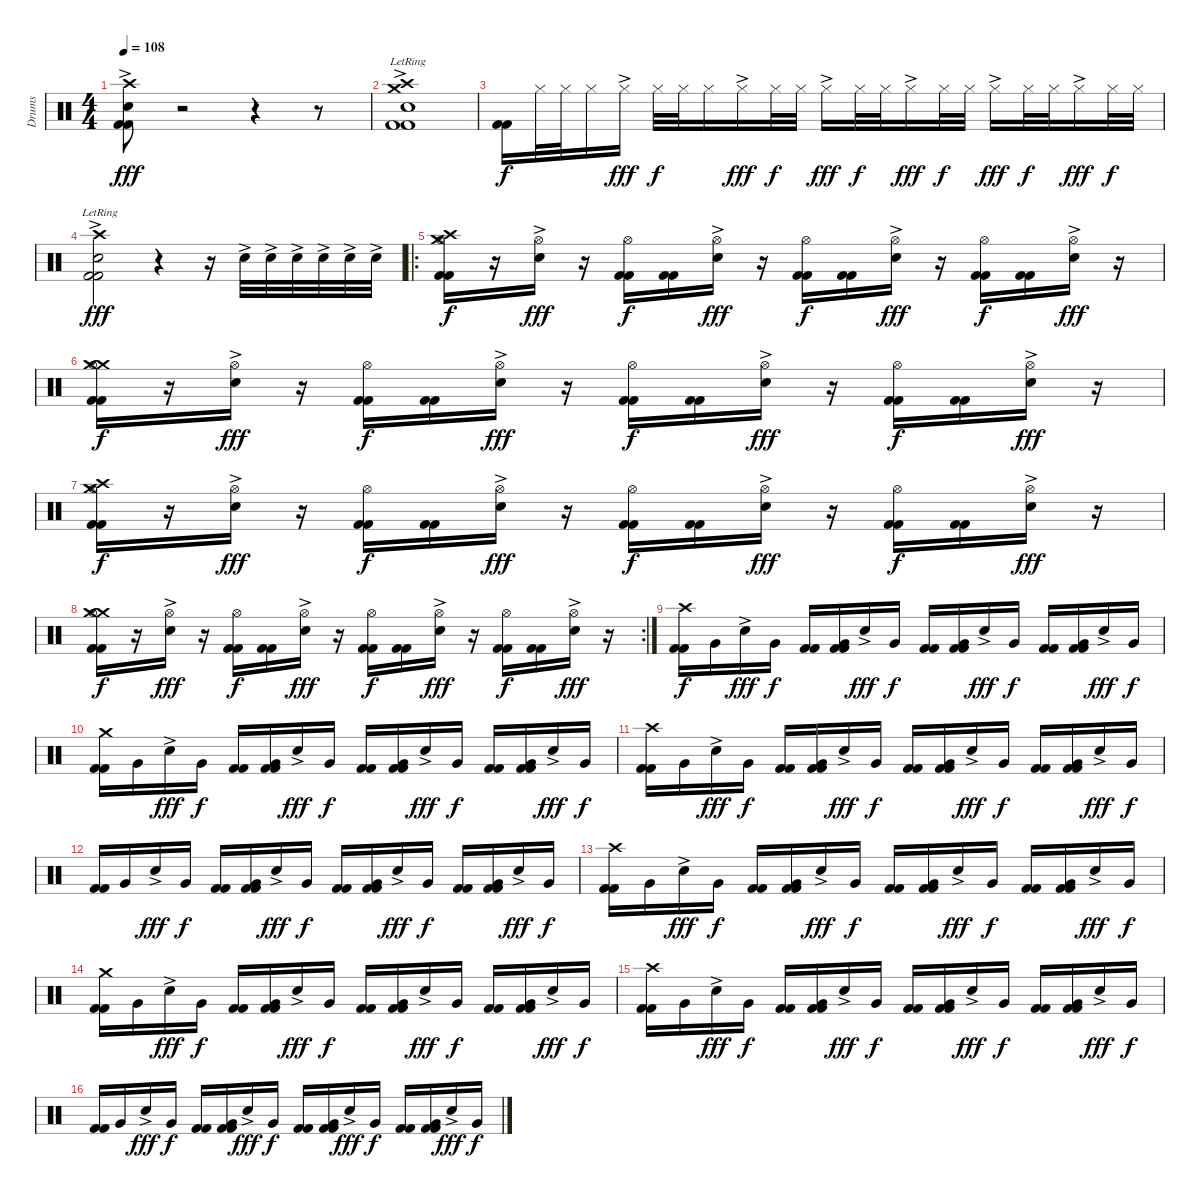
\track ("Drums" "Drums") {instrument percussion}
\staff {score}
\articulation defaults
\ts (4 4)
\tempo 108
\clef neutral
\ks c
("Crash high (hit)"{ac} "Electric Snare (hit)" "Kick (hit) 2" "Kick (hit) 2").8{dy fff} r.2 r.4 r.8 |
("Crash high (hit)"{ac lr} "Crash medium (hit)"{lr} "Electric Snare (hit)"{lr} "Kick (hit) 2"{lr} "Kick (hit) 2"{lr}).1 |
("Kick (hit) 2" "Kick (hit) 2").16{dy f} "Hi-Hat (closed)".32 "Hi-Hat (closed)".32 "Hi-Hat (closed)".16 "Hi-Hat (closed)"{ac}.16{dy fff} "Hi-Hat (closed)".32{dy f} "Hi-Hat (closed)".32 "Hi-Hat (closed)".16 "Hi-Hat (closed)"{ac}.16{dy fff} "Hi-Hat (closed)".32{dy f} "Hi-Hat (closed)".32 "Hi-Hat (closed)"{ac}.16{dy fff} "Hi-Hat (closed)".32{dy f} "Hi-Hat (closed)".32 "Hi-Hat (closed)"{ac}.16{dy fff} "Hi-Hat (closed)".32{dy f} "Hi-Hat (closed)".32 "Hi-Hat (closed)"{ac}.16{dy fff} "Hi-Hat (closed)".32{dy f} "Hi-Hat (closed)".32 "Hi-Hat (closed)"{ac}.16{dy fff} "Hi-Hat (closed)".32{dy f} "Hi-Hat (closed)".32 |
("Crash high (hit)"{ac lr} "Electric Snare (hit)"{lr} "Kick (hit) 2"{lr} "Kick (hit) 2"{lr}).2{dy fff} r.4 r.16 "Electric Snare (hit)"{ac}.32 "Electric Snare (hit)"{ac}.32 "Electric Snare (hit)"{ac}.32 "Electric Snare (hit)"{ac}.32 "Electric Snare (hit)"{ac}.32 "Electric Snare (hit)"{ac}.32 |
\ro
("Crash high (hit)" "Crash medium (hit)" "Hi-Hat (open)" "Kick (hit) 2" "Kick (hit) 2").16{dy f} r.16 ("Hi-Hat (open)" "Electric Snare (hit)"{ac}).16{dy fff} r.16 ("Hi-Hat (open)" "Kick (hit) 2" "Kick (hit) 2").16{dy f} ("Kick (hit) 2" "Kick (hit) 2").16 ("Hi-Hat (open)" "Electric Snare (hit)"{ac}).16{dy fff} r.16 ("Hi-Hat (open)" "Kick (hit) 2" "Kick (hit) 2").16{dy f} ("Kick (hit) 2" "Kick (hit) 2").16 ("Hi-Hat (open)" "Electric Snare (hit)"{ac}).16{dy fff} r.16 ("Hi-Hat (open)" "Kick (hit) 2" "Kick (hit) 2").16{dy f} ("Kick (hit) 2" "Kick (hit) 2").16 ("Hi-Hat (open)" "Electric Snare (hit)"{ac}).16{dy fff} r.16 |
("Crash medium (hit)" "Crash medium (hit)" "Hi-Hat (open)" "Kick (hit) 2" "Kick (hit) 2").16{dy f} r.16 ("Hi-Hat (open)" "Electric Snare (hit)"{ac}).16{dy fff} r.16 ("Hi-Hat (open)" "Kick (hit) 2" "Kick (hit) 2").16{dy f} ("Kick (hit) 2" "Kick (hit) 2").16 ("Hi-Hat (open)" "Electric Snare (hit)"{ac}).16{dy fff} r.16 ("Hi-Hat (open)" "Kick (hit) 2" "Kick (hit) 2").16{dy f} ("Kick (hit) 2" "Kick (hit) 2").16 ("Hi-Hat (open)" "Electric Snare (hit)"{ac}).16{dy fff} r.16 ("Hi-Hat (open)" "Kick (hit) 2" "Kick (hit) 2").16{dy f} ("Kick (hit) 2" "Kick (hit) 2").16 ("Hi-Hat (open)" "Electric Snare (hit)"{ac}).16{dy fff} r.16 |
("Crash high (hit)" "Crash medium (hit)" "Hi-Hat (open)" "Kick (hit) 2" "Kick (hit) 2").16{dy f} r.16 ("Hi-Hat (open)" "Electric Snare (hit)"{ac}).16{dy fff} r.16 ("Hi-Hat (open)" "Kick (hit) 2" "Kick (hit) 2").16{dy f} ("Kick (hit) 2" "Kick (hit) 2").16 ("Hi-Hat (open)" "Electric Snare (hit)"{ac}).16{dy fff} r.16 ("Hi-Hat (open)" "Kick (hit) 2" "Kick (hit) 2").16{dy f} ("Kick (hit) 2" "Kick (hit) 2").16 ("Hi-Hat (open)" "Electric Snare (hit)"{ac}).16{dy fff} r.16 ("Hi-Hat (open)" "Kick (hit) 2" "Kick (hit) 2").16{dy f} ("Kick (hit) 2" "Kick (hit) 2").16 ("Hi-Hat (open)" "Electric Snare (hit)"{ac}).16{dy fff} r.16 |
\rc 2
("Crash medium (hit)" "Crash medium (hit)" "Hi-Hat (open)" "Kick (hit) 2" "Kick (hit) 2").16{dy f} r.16 ("Hi-Hat (open)" "Electric Snare (hit)"{ac}).16{dy fff} r.16 ("Hi-Hat (open)" "Kick (hit) 2" "Kick (hit) 2").16{dy f} ("Kick (hit) 2" "Kick (hit) 2").16 ("Hi-Hat (open)" "Electric Snare (hit)"{ac}).16{dy fff} r.16 ("Hi-Hat (open)" "Kick (hit) 2" "Kick (hit) 2").16{dy f} ("Kick (hit) 2" "Kick (hit) 2").16 ("Hi-Hat (open)" "Electric Snare (hit)"{ac}).16{dy fff} r.16 ("Hi-Hat (open)" "Kick (hit) 2" "Kick (hit) 2").16{dy f} ("Kick (hit) 2" "Kick (hit) 2").16 ("Hi-Hat (open)" "Electric Snare (hit)"{ac}).16{dy fff} r.16 |
("Crash high (hit)" "Kick (hit) 2" "Kick (hit) 2").16{dy f} "Very Low Tom (hit)".16 "Electric Snare (hit)"{ac}.16{dy fff} "Very Low Tom (hit)".16{dy f} ("Kick (hit) 2" "Kick (hit) 2").16 ("Very Low Tom (hit)" "Kick (hit) 2" "Kick (hit) 2").16 "Electric Snare (hit)"{ac}.16{dy fff} "Very Low Tom (hit)".16{dy f} ("Kick (hit) 2" "Kick (hit) 2").16 ("Very Low Tom (hit)" "Kick (hit) 2" "Kick (hit) 2").16 "Electric Snare (hit)"{ac}.16{dy fff} "Very Low Tom (hit)".16{dy f} ("Kick (hit) 2" "Kick (hit) 2").16 ("Very Low Tom (hit)" "Kick (hit) 2" "Kick (hit) 2").16 "Electric Snare (hit)"{ac}.16{dy fff} "Very Low Tom (hit)".16{dy f} |
("Crash medium (hit)" "Kick (hit) 2" "Kick (hit) 2").16 "Very Low Tom (hit)".16 "Electric Snare (hit)"{ac}.16{dy fff} "Very Low Tom (hit)".16{dy f} ("Kick (hit) 2" "Kick (hit) 2").16 ("Very Low Tom (hit)" "Kick (hit) 2" "Kick (hit) 2").16 "Electric Snare (hit)"{ac}.16{dy fff} "Very Low Tom (hit)".16{dy f} ("Kick (hit) 2" "Kick (hit) 2").16 ("Very Low Tom (hit)" "Kick (hit) 2" "Kick (hit) 2").16 "Electric Snare (hit)"{ac}.16{dy fff} "Very Low Tom (hit)".16{dy f} ("Kick (hit) 2" "Kick (hit) 2").16 ("Very Low Tom (hit)" "Kick (hit) 2" "Kick (hit) 2").16 "Electric Snare (hit)"{ac}.16{dy fff} "Very Low Tom (hit)".16{dy f} |
("Crash high (hit)" "Kick (hit) 2" "Kick (hit) 2").16 "Very Low Tom (hit)".16 "Electric Snare (hit)"{ac}.16{dy fff} "Very Low Tom (hit)".16{dy f} ("Kick (hit) 2" "Kick (hit) 2").16 ("Very Low Tom (hit)" "Kick (hit) 2" "Kick (hit) 2").16 "Electric Snare (hit)"{ac}.16{dy fff} "Very Low Tom (hit)".16{dy f} ("Kick (hit) 2" "Kick (hit) 2").16 ("Very Low Tom (hit)" "Kick (hit) 2" "Kick (hit) 2").16 "Electric Snare (hit)"{ac}.16{dy fff} "Very Low Tom (hit)".16{dy f} ("Kick (hit) 2" "Kick (hit) 2").16 ("Very Low Tom (hit)" "Kick (hit) 2" "Kick (hit) 2").16 "Electric Snare (hit)"{ac}.16{dy fff} "Very Low Tom (hit)".16{dy f} |
("Kick (hit) 2" "Kick (hit) 2").16 "Very Low Tom (hit)".16 "Electric Snare (hit)"{ac}.16{dy fff} "Very Low Tom (hit)".16{dy f} ("Kick (hit) 2" "Kick (hit) 2").16 ("Very Low Tom (hit)" "Kick (hit) 2" "Kick (hit) 2").16 "Electric Snare (hit)"{ac}.16{dy fff} "Very Low Tom (hit)".16{dy f} ("Kick (hit) 2" "Kick (hit) 2").16 ("Very Low Tom (hit)" "Kick (hit) 2" "Kick (hit) 2").16 "Electric Snare (hit)"{ac}.16{dy fff} "Very Low Tom (hit)".16{dy f} ("Kick (hit) 2" "Kick (hit) 2").16 ("Very Low Tom (hit)" "Kick (hit) 2" "Kick (hit) 2").16 "Electric Snare (hit)"{ac}.16{dy fff} "Very Low Tom (hit)".16{dy f} |
("Crash high (hit)" "Kick (hit) 2" "Kick (hit) 2").16 "Very Low Tom (hit)".16 "Electric Snare (hit)"{ac}.16{dy fff} "Very Low Tom (hit)".16{dy f} ("Kick (hit) 2" "Kick (hit) 2").16 ("Very Low Tom (hit)" "Kick (hit) 2" "Kick (hit) 2").16 "Electric Snare (hit)"{ac}.16{dy fff} "Very Low Tom (hit)".16{dy f} ("Kick (hit) 2" "Kick (hit) 2").16 ("Very Low Tom (hit)" "Kick (hit) 2" "Kick (hit) 2").16 "Electric Snare (hit)"{ac}.16{dy fff} "Very Low Tom (hit)".16{dy f} ("Kick (hit) 2" "Kick (hit) 2").16 ("Very Low Tom (hit)" "Kick (hit) 2" "Kick (hit) 2").16 "Electric Snare (hit)"{ac}.16{dy fff} "Very Low Tom (hit)".16{dy f} |
("Crash medium (hit)" "Kick (hit) 2" "Kick (hit) 2").16 "Very Low Tom (hit)".16 "Electric Snare (hit)"{ac}.16{dy fff} "Very Low Tom (hit)".16{dy f} ("Kick (hit) 2" "Kick (hit) 2").16 ("Very Low Tom (hit)" "Kick (hit) 2" "Kick (hit) 2").16 "Electric Snare (hit)"{ac}.16{dy fff} "Very Low Tom (hit)".16{dy f} ("Kick (hit) 2" "Kick (hit) 2").16 ("Very Low Tom (hit)" "Kick (hit) 2" "Kick (hit) 2").16 "Electric Snare (hit)"{ac}.16{dy fff} "Very Low Tom (hit)".16{dy f} ("Kick (hit) 2" "Kick (hit) 2").16 ("Very Low Tom (hit)" "Kick (hit) 2" "Kick (hit) 2").16 "Electric Snare (hit)"{ac}.16{dy fff} "Very Low Tom (hit)".16{dy f} |
("Crash high (hit)" "Kick (hit) 2" "Kick (hit) 2").16 "Very Low Tom (hit)".16 "Electric Snare (hit)"{ac}.16{dy fff} "Very Low Tom (hit)".16{dy f} ("Kick (hit) 2" "Kick (hit) 2").16 ("Very Low Tom (hit)" "Kick (hit) 2" "Kick (hit) 2").16 "Electric Snare (hit)"{ac}.16{dy fff} "Very Low Tom (hit)".16{dy f} ("Kick (hit) 2" "Kick (hit) 2").16 ("Very Low Tom (hit)" "Kick (hit) 2" "Kick (hit) 2").16 "Electric Snare (hit)"{ac}.16{dy fff} "Very Low Tom (hit)".16{dy f} ("Kick (hit) 2" "Kick (hit) 2").16 ("Very Low Tom (hit)" "Kick (hit) 2" "Kick (hit) 2").16 "Electric Snare (hit)"{ac}.16{dy fff} "Very Low Tom (hit)".16{dy f} |
("Kick (hit) 2" "Kick (hit) 2").16 "Very Low Tom (hit)".16 "Electric Snare (hit)"{ac}.16{dy fff} "Very Low Tom (hit)".16{dy f} ("Kick (hit) 2" "Kick (hit) 2").16 ("Very Low Tom (hit)" "Kick (hit) 2" "Kick (hit) 2").16 "Electric Snare (hit)"{ac}.16{dy fff} "Very Low Tom (hit)".16{dy f} ("Kick (hit) 2" "Kick (hit) 2").16 ("Very Low Tom (hit)" "Kick (hit) 2" "Kick (hit) 2").16 "Electric Snare (hit)"{ac}.16{dy fff} "Very Low Tom (hit)".16{dy f} ("Kick (hit) 2" "Kick (hit) 2").16 ("Very Low Tom (hit)" "Kick (hit) 2" "Kick (hit) 2").16 "Electric Snare (hit)"{ac}.16{dy fff} "Very Low Tom (hit)".16{dy f}
